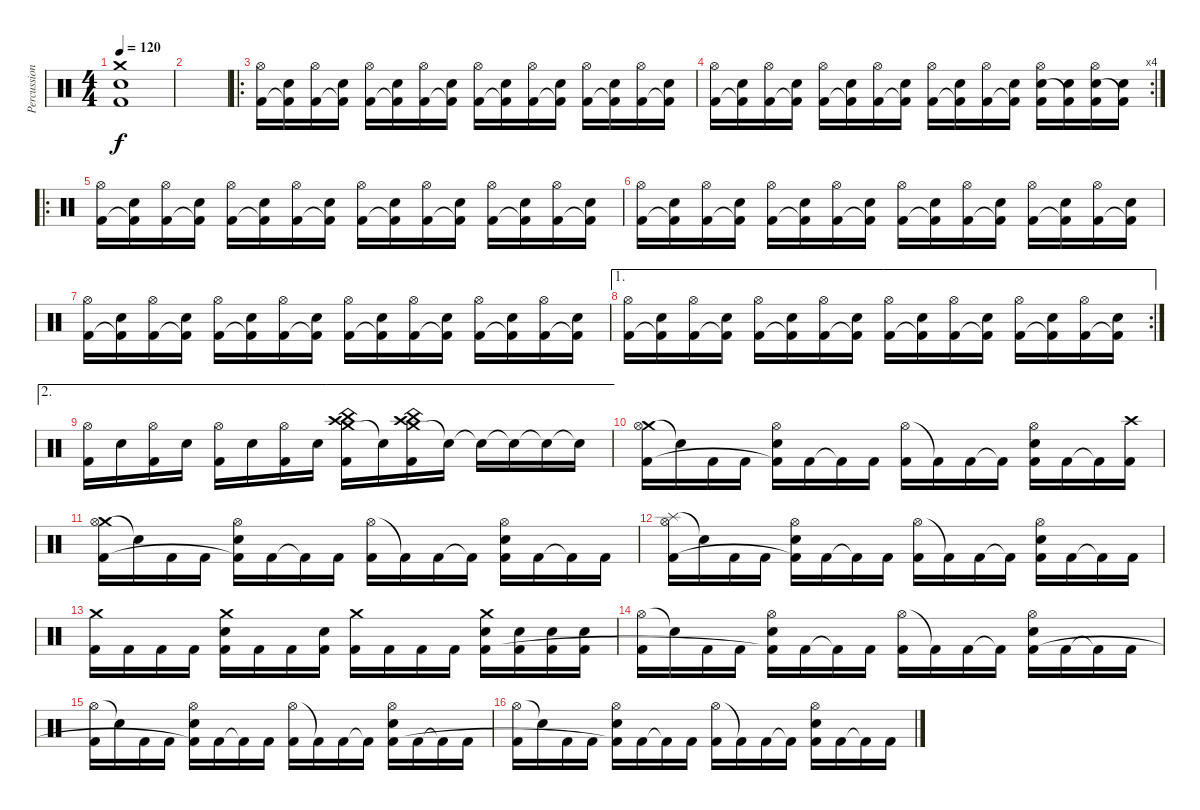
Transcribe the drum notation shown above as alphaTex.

\track ("Percussion" "Percussion") {instrument percussion}
\staff {score}
\articulation defaults
\ts (4 4)
\tempo 120
\clef neutral
\ks c
("Crash medium (hit)" "Electric Snare (hit)" "Kick (hit) 2").1{dy f} |
|
\ro
("Hi-Hat (open)" "Kick (hit) 2").16 ("Electric Snare (hit)" "Kick (hit) 2"{t}).16 ("Hi-Hat (open)" "Kick (hit) 2").16 ("Electric Snare (hit)" "Kick (hit) 2"{t}).16 ("Hi-Hat (open)" "Kick (hit) 2").16 ("Electric Snare (hit)" "Kick (hit) 2"{t}).16 ("Hi-Hat (open)" "Kick (hit) 2").16 ("Electric Snare (hit)" "Kick (hit) 2"{t}).16 ("Hi-Hat (open)" "Kick (hit) 2").16 ("Electric Snare (hit)" "Kick (hit) 2"{t}).16 ("Hi-Hat (open)" "Kick (hit) 2").16 ("Electric Snare (hit)" "Kick (hit) 2"{t}).16 ("Hi-Hat (open)" "Kick (hit) 2").16 ("Electric Snare (hit)" "Kick (hit) 2"{t}).16 ("Hi-Hat (open)" "Kick (hit) 2").16 ("Electric Snare (hit)" "Kick (hit) 2"{t}).16 |
\rc 4
("Hi-Hat (open)" "Kick (hit) 2").16 ("Electric Snare (hit)" "Kick (hit) 2"{t}).16 ("Hi-Hat (open)" "Kick (hit) 2").16 ("Electric Snare (hit)" "Kick (hit) 2"{t}).16 ("Hi-Hat (open)" "Kick (hit) 2").16 ("Electric Snare (hit)" "Kick (hit) 2"{t}).16 ("Hi-Hat (open)" "Kick (hit) 2").16 ("Electric Snare (hit)" "Kick (hit) 2"{t}).16 ("Hi-Hat (open)" "Kick (hit) 2").16 ("Electric Snare (hit)" "Kick (hit) 2"{t}).16 ("Hi-Hat (open)" "Kick (hit) 2").16 ("Electric Snare (hit)" "Kick (hit) 2"{t}).16 ("Hi-Hat (open)" "Electric Snare (hit)" "Kick (hit) 2").16 ("Electric Snare (hit)" "Kick (hit) 2"{t}).16 ("Hi-Hat (open)" "Electric Snare (hit)" "Kick (hit) 2").16 ("Electric Snare (hit)" "Kick (hit) 2"{t}).16 |
\ro
("Hi-Hat (open)" "Kick (hit) 2").16 ("Electric Snare (hit)" "Kick (hit) 2"{t}).16 ("Hi-Hat (open)" "Kick (hit) 2").16 ("Electric Snare (hit)" "Kick (hit) 2"{t}).16 ("Hi-Hat (open)" "Kick (hit) 2").16 ("Electric Snare (hit)" "Kick (hit) 2"{t}).16 ("Hi-Hat (open)" "Kick (hit) 2").16 ("Electric Snare (hit)" "Kick (hit) 2"{t}).16 ("Hi-Hat (open)" "Kick (hit) 2").16 ("Electric Snare (hit)" "Kick (hit) 2"{t}).16 ("Hi-Hat (open)" "Kick (hit) 2").16 ("Electric Snare (hit)" "Kick (hit) 2"{t}).16 ("Hi-Hat (open)" "Kick (hit) 2").16 ("Electric Snare (hit)" "Kick (hit) 2"{t}).16 ("Hi-Hat (open)" "Kick (hit) 2").16 ("Electric Snare (hit)" "Kick (hit) 2"{t}).16 |
("Hi-Hat (open)" "Kick (hit) 2").16 ("Electric Snare (hit)" "Kick (hit) 2"{t}).16 ("Hi-Hat (open)" "Kick (hit) 2").16 ("Electric Snare (hit)" "Kick (hit) 2"{t}).16 ("Hi-Hat (open)" "Kick (hit) 2").16 ("Electric Snare (hit)" "Kick (hit) 2"{t}).16 ("Hi-Hat (open)" "Kick (hit) 2").16 ("Electric Snare (hit)" "Kick (hit) 2"{t}).16 ("Hi-Hat (open)" "Kick (hit) 2").16 ("Electric Snare (hit)" "Kick (hit) 2"{t}).16 ("Hi-Hat (open)" "Kick (hit) 2").16 ("Electric Snare (hit)" "Kick (hit) 2"{t}).16 ("Hi-Hat (open)" "Kick (hit) 2").16 ("Electric Snare (hit)" "Kick (hit) 2"{t}).16 ("Hi-Hat (open)" "Kick (hit) 2").16 ("Electric Snare (hit)" "Kick (hit) 2"{t}).16 |
("Hi-Hat (open)" "Kick (hit) 2").16 ("Electric Snare (hit)" "Kick (hit) 2"{t}).16 ("Hi-Hat (open)" "Kick (hit) 2").16 ("Electric Snare (hit)" "Kick (hit) 2"{t}).16 ("Hi-Hat (open)" "Kick (hit) 2").16 ("Electric Snare (hit)" "Kick (hit) 2"{t}).16 ("Hi-Hat (open)" "Kick (hit) 2").16 ("Electric Snare (hit)" "Kick (hit) 2"{t}).16 ("Hi-Hat (open)" "Kick (hit) 2").16 ("Electric Snare (hit)" "Kick (hit) 2"{t}).16 ("Hi-Hat (open)" "Kick (hit) 2").16 ("Electric Snare (hit)" "Kick (hit) 2"{t}).16 ("Hi-Hat (open)" "Kick (hit) 2").16 ("Electric Snare (hit)" "Kick (hit) 2"{t}).16 ("Hi-Hat (open)" "Kick (hit) 2").16 ("Electric Snare (hit)" "Kick (hit) 2"{t}).16 |
\ae 1
\rc 2
("Hi-Hat (open)" "Kick (hit) 2").16 ("Electric Snare (hit)" "Kick (hit) 2"{t}).16 ("Hi-Hat (open)" "Kick (hit) 2").16 ("Electric Snare (hit)" "Kick (hit) 2"{t}).16 ("Hi-Hat (open)" "Kick (hit) 2").16 ("Electric Snare (hit)" "Kick (hit) 2"{t}).16 ("Hi-Hat (open)" "Kick (hit) 2").16 ("Electric Snare (hit)" "Kick (hit) 2"{t}).16 ("Hi-Hat (open)" "Kick (hit) 2").16 ("Electric Snare (hit)" "Kick (hit) 2"{t}).16 ("Hi-Hat (open)" "Kick (hit) 2").16 ("Electric Snare (hit)" "Kick (hit) 2"{t}).16 ("Hi-Hat (open)" "Kick (hit) 2").16 ("Electric Snare (hit)" "Kick (hit) 2"{t}).16 ("Hi-Hat (open)" "Kick (hit) 2").16 ("Electric Snare (hit)" "Kick (hit) 2"{t}).16 |
\ae 2
("Hi-Hat (open)" "Kick (hit) 2").16 "Electric Snare (hit)".16 ("Hi-Hat (open)" "Kick (hit) 2").16 "Electric Snare (hit)".16 ("Hi-Hat (open)" "Kick (hit) 2").16 "Electric Snare (hit)".16 ("Hi-Hat (open)" "Kick (hit) 2").16 "Electric Snare (hit)".16 ("Crash medium (hit)" "Crash high (hit)" "China (hit)" "Kick (hit) 2").16 "Snare (hit)"{t}.16 ("Crash medium (hit)" "Crash high (hit)" "China (hit)" "Kick (hit) 2").16 "Snare (hit)"{t}.16 "Snare (hit)"{t}.16 "Snare (hit)"{t}.16 "Snare (hit)"{t}.16 "Snare (hit)"{t}.16 |
("Crash medium (hit)" "Hi-Hat (open)" "Kick (hit) 2").16 "Snare (hit)"{t}.16 "Kick (hit) 2".16 "Kick (hit) 2".16 ("Hi-Hat (open)" "Electric Snare (hit)" "Kick (hit) 2"{t}).16 "Kick (hit) 2".16 "Kick (hit) 2"{t}.16 "Kick (hit) 2".16 ("Hi-Hat (open)" "Kick (hit) 2").16 "Kick (hit) 2"{t}.16 "Kick (hit) 2".16 "Kick (hit) 2"{t}.16 ("Hi-Hat (open)" "Electric Snare (hit)" "Kick (hit) 2").16 "Kick (hit) 2".16 "Kick (hit) 2"{t}.16 ("Crash high (hit)" "Kick (hit) 2").16 |
("Crash medium (hit)" "Hi-Hat (open)" "Kick (hit) 2").16 "Snare (hit)"{t}.16 "Kick (hit) 2".16 "Kick (hit) 2".16 ("Hi-Hat (open)" "Electric Snare (hit)" "Kick (hit) 2"{t}).16 "Kick (hit) 2".16 "Kick (hit) 2"{t}.16 "Kick (hit) 2".16 ("Hi-Hat (open)" "Kick (hit) 2").16 "Kick (hit) 2"{t}.16 "Kick (hit) 2".16 "Kick (hit) 2"{t}.16 ("Hi-Hat (open)" "Electric Snare (hit)" "Kick (hit) 2").16 "Kick (hit) 2".16 "Kick (hit) 2"{t}.16 "Kick (hit) 2".16 |
("Splash (hit)" "Hi-Hat (open)" "Kick (hit) 2").16 "Snare (hit)"{t}.16 "Kick (hit) 2".16 "Kick (hit) 2".16 ("Hi-Hat (open)" "Electric Snare (hit)" "Kick (hit) 2"{t}).16 "Kick (hit) 2".16 "Kick (hit) 2"{t}.16 "Kick (hit) 2".16 ("Hi-Hat (open)" "Kick (hit) 2").16 "Kick (hit) 2"{t}.16 "Kick (hit) 2".16 "Kick (hit) 2"{t}.16 ("Hi-Hat (open)" "Electric Snare (hit)" "Kick (hit) 2").16 "Kick (hit) 2".16 "Kick (hit) 2"{t}.16 "Kick (hit) 2".16 |
("Crash medium (hit)" "Kick (hit) 2").16 "Kick (hit) 2".16 "Kick (hit) 2".16 "Kick (hit) 2".16 ("Crash medium (hit)" "Electric Snare (hit)" "Kick (hit) 2").16 "Kick (hit) 2".16 "Kick (hit) 2".16 ("Electric Snare (hit)" "Kick (hit) 2").16 ("Crash medium (hit)" "Kick (hit) 2").16 "Kick (hit) 2".16 "Kick (hit) 2".16 "Kick (hit) 2".16 ("Crash medium (hit)" "Electric Snare (hit)" "Kick (hit) 2").16 ("Electric Snare (hit)" "Kick (hit) 2").16 ("Electric Snare (hit)" "Kick (hit) 2").16 ("Electric Snare (hit)" "Kick (hit) 2").16 |
("Hi-Hat (open)" "Kick (hit) 2").16 "Snare (hit)"{t}.16 "Kick (hit) 2".16 "Kick (hit) 2".16 ("Hi-Hat (open)" "Electric Snare (hit)" "Kick (hit) 2"{t}).16 "Kick (hit) 2".16 "Kick (hit) 2"{t}.16 "Kick (hit) 2".16 ("Hi-Hat (open)" "Kick (hit) 2").16 "Kick (hit) 2"{t}.16 "Kick (hit) 2".16 "Kick (hit) 2"{t}.16 ("Hi-Hat (open)" "Electric Snare (hit)" "Kick (hit) 2").16 "Kick (hit) 2".16 "Kick (hit) 2"{t}.16 "Kick (hit) 2".16 |
("Hi-Hat (open)" "Kick (hit) 2").16 "Snare (hit)"{t}.16 "Kick (hit) 2".16 "Kick (hit) 2".16 ("Hi-Hat (open)" "Electric Snare (hit)" "Kick (hit) 2"{t}).16 "Kick (hit) 2".16 "Kick (hit) 2"{t}.16 "Kick (hit) 2".16 ("Hi-Hat (open)" "Kick (hit) 2").16 "Kick (hit) 2"{t}.16 "Kick (hit) 2".16 "Kick (hit) 2"{t}.16 ("Hi-Hat (open)" "Electric Snare (hit)" "Kick (hit) 2").16 "Kick (hit) 2".16 "Kick (hit) 2"{t}.16 "Kick (hit) 2".16 |
("Hi-Hat (open)" "Kick (hit) 2").16 "Snare (hit)"{t}.16 "Kick (hit) 2".16 "Kick (hit) 2".16 ("Hi-Hat (open)" "Electric Snare (hit)" "Kick (hit) 2"{t}).16 "Kick (hit) 2".16 "Kick (hit) 2"{t}.16 "Kick (hit) 2".16 ("Hi-Hat (open)" "Kick (hit) 2").16 "Kick (hit) 2"{t}.16 "Kick (hit) 2".16 "Kick (hit) 2"{t}.16 ("Hi-Hat (open)" "Electric Snare (hit)" "Kick (hit) 2").16 "Kick (hit) 2".16 "Kick (hit) 2"{t}.16 "Kick (hit) 2".16
